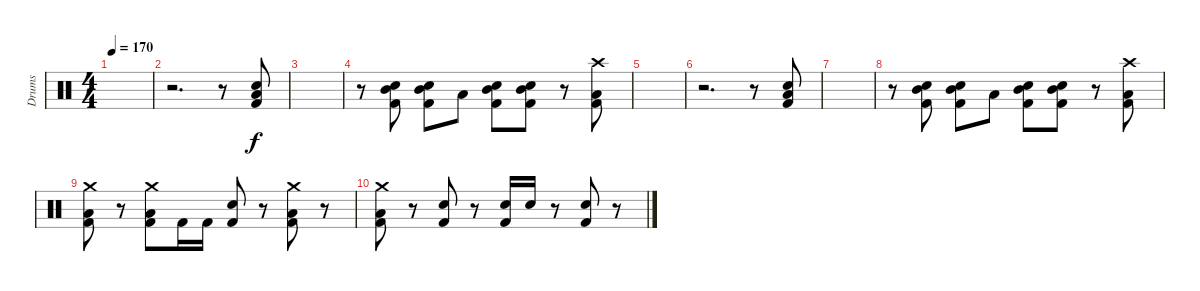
\track ("Drums" "Drums") {instrument percussion}
\staff {score}
\articulation defaults
\ts (4 4)
\tempo 170
\clef neutral
\ks c
|
r.2{d} r.8 ("Electric Snare (hit)" "Low Tom (hit)" "Kick (hit) 2").8 |
|
r.8 ("Electric Snare (hit)" "Mid Tom (hit)" "Kick (hit) 2").8 ("Electric Snare (hit)" "Mid Tom (hit)" "Kick (hit) 2").8 "Low Tom (hit)".8 ("Electric Snare (hit)" "Mid Tom (hit)" "Kick (hit) 2").8 ("Electric Snare (hit)" "Mid Tom (hit)" "Kick (hit) 2").8 r.8 ("Crash high (hit)" "Low Tom (hit)" "Kick (hit) 2").8 |
|
r.2{d} r.8 ("Electric Snare (hit)" "Low Tom (hit)" "Kick (hit) 2").8 |
|
r.8 ("Electric Snare (hit)" "Mid Tom (hit)" "Kick (hit) 2").8 ("Electric Snare (hit)" "Mid Tom (hit)" "Kick (hit) 2").8 "Low Tom (hit)".8 ("Electric Snare (hit)" "Mid Tom (hit)" "Kick (hit) 2").8 ("Electric Snare (hit)" "Mid Tom (hit)" "Kick (hit) 2").8 r.8 ("Crash high (hit)" "Low Tom (hit)" "Kick (hit) 2").8 |
("Crash medium (hit)" "Low Tom (hit)" "Kick (hit) 2").8 r.8 ("Crash medium (hit)" "Low Tom (hit)" "Kick (hit) 2").8 "Kick (hit) 2".16 "Kick (hit) 2".16 ("Electric Snare (hit)" "Kick (hit) 2").8 r.8 ("Crash medium (hit)" "Low Tom (hit)" "Kick (hit) 2").8 r.8 |
("Crash medium (hit)" "Low Tom (hit)" "Kick (hit) 2").8 r.8 ("Electric Snare (hit)" "Kick (hit) 2").8 r.8 ("Electric Snare (hit)" "Kick (hit) 2").16 "Electric Snare (hit)".16 r.8 ("Electric Snare (hit)" "Kick (hit) 2").8 r.8
